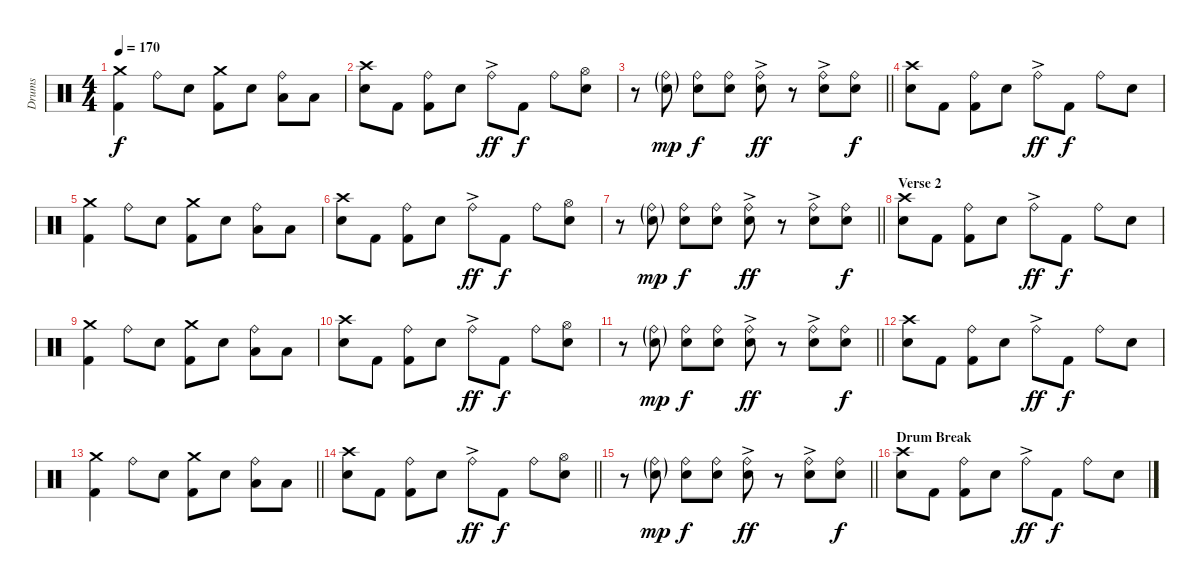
\track ("Drums" "Drums") {instrument percussion}
\staff {score}
\articulation defaults
\ts (4 4)
\tempo 170
\clef neutral
\ks c
("Crash medium (hit)" "Kick (hit) 2").4{dy f} "Ride (bell)".8 "Snare (hit) 2".8 ("Crash medium (hit)" "Kick (hit) 2").8 "Electric Snare (hit)".8 ("Ride (bell)" "Low Tom (hit)").8 "Low Tom (hit)".8 |
("Crash high (hit)" "Snare (hit) 2").8 "Kick (hit) 2".8 ("Ride (bell)" "Kick (hit) 2").8 "Snare (hit) 2".8 "Ride (bell)"{ac}.8{dy ff} "Kick (hit) 2".8{dy f} "Ride (bell)".8 ("Hi-Hat (open)" "Snare (hit) 2").8 |
\barLineRight lightlight
r.8 ("Ride (bell)"{g} "Electric Snare (hit)"{g}).8{dy mp} ("Ride (bell)" "Electric Snare (hit)").8{dy f} ("Ride (bell)" "Electric Snare (hit)").8 ("Ride (bell)"{ac} "Electric Snare (hit)"{ac}).8{dy ff} r.8 ("Ride (bell)"{ac} "Electric Snare (hit)"{ac}).8 ("Ride (bell)" "Electric Snare (hit)").8{dy f} |
\section ("" "")
("Crash high (hit)" "Snare (hit) 2").8 "Kick (hit) 2".8 ("Ride (bell)" "Kick (hit) 2").8 "Snare (hit) 2".8 "Ride (bell)"{ac}.8{dy ff} "Kick (hit) 2".8{dy f} "Ride (bell)".8 "Snare (hit) 2".8 |
("Crash medium (hit)" "Kick (hit) 2").4 "Ride (bell)".8 "Snare (hit) 2".8 ("Crash medium (hit)" "Kick (hit) 2").8 "Electric Snare (hit)".8 ("Ride (bell)" "Low Tom (hit)").8 "Low Tom (hit)".8 |
("Crash high (hit)" "Snare (hit) 2").8 "Kick (hit) 2".8 ("Ride (bell)" "Kick (hit) 2").8 "Snare (hit) 2".8 "Ride (bell)"{ac}.8{dy ff} "Kick (hit) 2".8{dy f} "Ride (bell)".8 ("Hi-Hat (open)" "Snare (hit) 2").8 |
\barLineRight lightlight
r.8 ("Ride (bell)"{g} "Electric Snare (hit)"{g}).8{dy mp} ("Ride (bell)" "Electric Snare (hit)").8{dy f} ("Ride (bell)" "Electric Snare (hit)").8 ("Ride (bell)"{ac} "Electric Snare (hit)"{ac}).8{dy ff} r.8 ("Ride (bell)"{ac} "Electric Snare (hit)"{ac}).8 ("Ride (bell)" "Electric Snare (hit)").8{dy f} |
\section ("" "Verse 2")
("Crash high (hit)" "Snare (hit) 2").8 "Kick (hit) 2".8 ("Ride (bell)" "Kick (hit) 2").8 "Snare (hit) 2".8 "Ride (bell)"{ac}.8{dy ff} "Kick (hit) 2".8{dy f} "Ride (bell)".8 "Snare (hit) 2".8 |
("Crash medium (hit)" "Kick (hit) 2").4 "Ride (bell)".8 "Snare (hit) 2".8 ("Crash medium (hit)" "Kick (hit) 2").8 "Electric Snare (hit)".8 ("Ride (bell)" "Low Tom (hit)").8 "Low Tom (hit)".8 |
("Crash high (hit)" "Snare (hit) 2").8 "Kick (hit) 2".8 ("Ride (bell)" "Kick (hit) 2").8 "Snare (hit) 2".8 "Ride (bell)"{ac}.8{dy ff} "Kick (hit) 2".8{dy f} "Ride (bell)".8 ("Hi-Hat (open)" "Snare (hit) 2").8 |
\barLineRight lightlight
r.8 ("Ride (bell)"{g} "Electric Snare (hit)"{g}).8{dy mp} ("Ride (bell)" "Electric Snare (hit)").8{dy f} ("Ride (bell)" "Electric Snare (hit)").8 ("Ride (bell)"{ac} "Electric Snare (hit)"{ac}).8{dy ff} r.8 ("Ride (bell)"{ac} "Electric Snare (hit)"{ac}).8 ("Ride (bell)" "Electric Snare (hit)").8{dy f} |
\section ("" "")
("Crash high (hit)" "Snare (hit) 2").8 "Kick (hit) 2".8 ("Ride (bell)" "Kick (hit) 2").8 "Snare (hit) 2".8 "Ride (bell)"{ac}.8{dy ff} "Kick (hit) 2".8{dy f} "Ride (bell)".8 "Snare (hit) 2".8 |
\barLineRight lightlight
("Crash medium (hit)" "Kick (hit) 2").4 "Ride (bell)".8 "Snare (hit) 2".8 ("Crash medium (hit)" "Kick (hit) 2").8 "Electric Snare (hit)".8 ("Ride (bell)" "Low Tom (hit)").8 "Low Tom (hit)".8 |
\barLineRight lightlight
("Crash high (hit)" "Snare (hit) 2").8 "Kick (hit) 2".8 ("Ride (bell)" "Kick (hit) 2").8 "Snare (hit) 2".8 "Ride (bell)"{ac}.8{dy ff} "Kick (hit) 2".8{dy f} "Ride (bell)".8 ("Hi-Hat (open)" "Snare (hit) 2").8 |
\barLineRight lightlight
r.8 ("Ride (bell)"{g} "Electric Snare (hit)"{g}).8{dy mp} ("Ride (bell)" "Electric Snare (hit)").8{dy f} ("Ride (bell)" "Electric Snare (hit)").8 ("Ride (bell)"{ac} "Electric Snare (hit)"{ac}).8{dy ff} r.8 ("Ride (bell)"{ac} "Electric Snare (hit)"{ac}).8 ("Ride (bell)" "Electric Snare (hit)").8{dy f} |
\section ("" "Drum Break")
("Crash high (hit)" "Snare (hit) 2").8 "Kick (hit) 2".8 ("Ride (bell)" "Kick (hit) 2").8 "Snare (hit) 2".8 "Ride (bell)"{ac}.8{dy ff} "Kick (hit) 2".8{dy f} "Ride (bell)".8 "Snare (hit) 2".8
